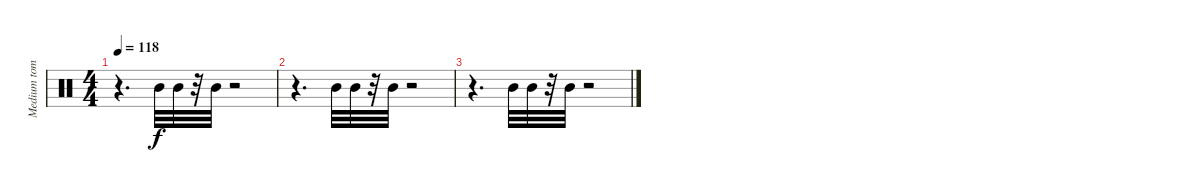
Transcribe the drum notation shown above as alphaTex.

\track ("Medium tom          " "Medium tom") {instrument percussion}
\staff {score}
\articulation defaults
\ts (4 4)
\tempo 118
\clef neutral
\ks c
r.4{d dy f} "Mid Tom (hit)".32 "Mid Tom (hit)".32 r.32 "Mid Tom (hit)".32 r.2 |
r.4{d} "Mid Tom (hit)".32 "Mid Tom (hit)".32 r.32 "Mid Tom (hit)".32 r.2 |
r.4{d} "Mid Tom (hit)".32 "Mid Tom (hit)".32 r.32 "Mid Tom (hit)".32 r.2
